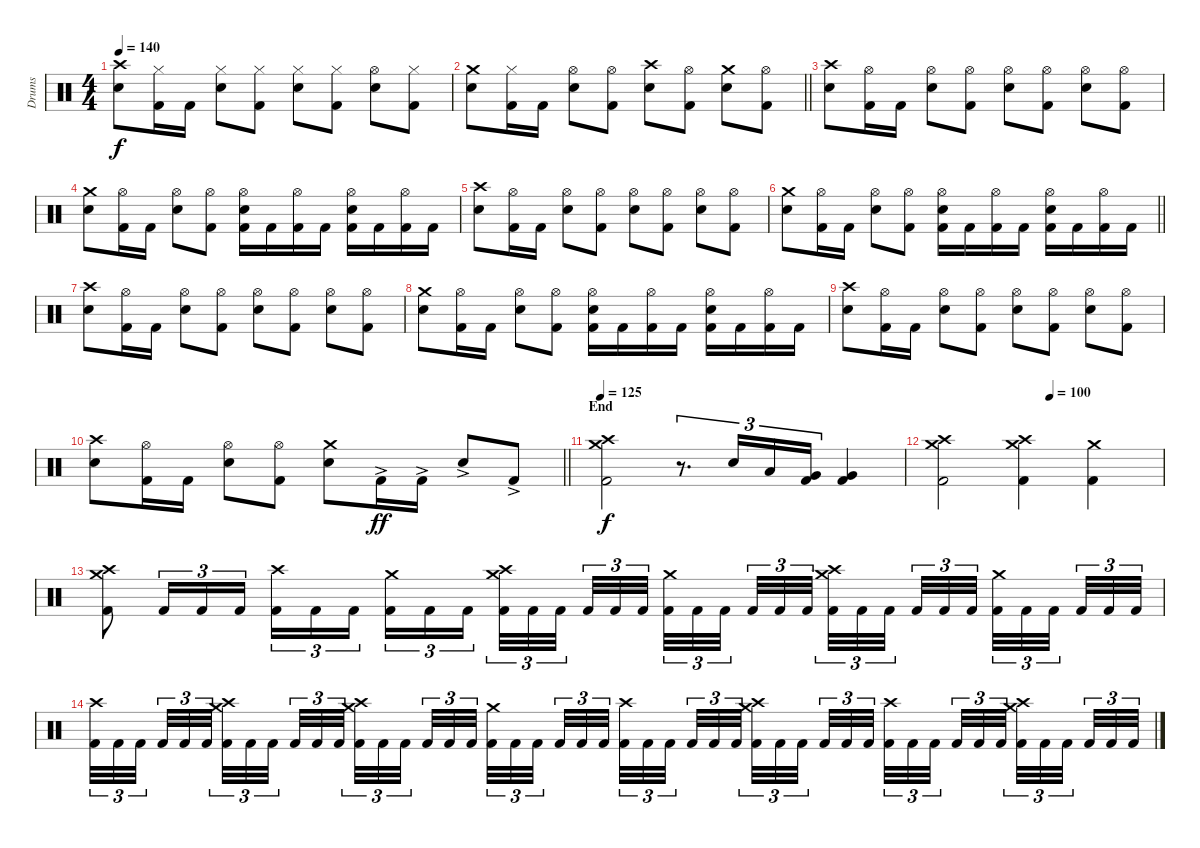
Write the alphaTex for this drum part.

\track ("Drums" "Drums") {instrument percussion}
\staff {score}
\articulation defaults
\ts (4 4)
\tempo 140
\clef neutral
\ks c
("Snare (hit) 2" "Crash high (hit)").8{dy f} ("Kick (hit) 2" "Hi-Hat (closed)").16 "Kick (hit) 2".16 ("Snare (hit) 2" "Hi-Hat (closed)").8 ("Kick (hit) 2" "Hi-Hat (closed)").8 ("Snare (hit) 2" "Hi-Hat (closed)").8 ("Kick (hit) 2" "Hi-Hat (closed)").8 ("Snare (hit) 2" "Hi-Hat (open)").8 ("Kick (hit) 2" "Hi-Hat (closed)").8 |
\barLineRight lightlight
("Snare (hit) 2" "Crash medium (hit)").8 ("Kick (hit) 2" "Hi-Hat (closed)").16 "Kick (hit) 2".16 ("Snare (hit) 2" "Hi-Hat (open)").8 ("Kick (hit) 2" "Hi-Hat (open)").8 ("Snare (hit) 2" "Crash high (hit)").8 ("Kick (hit) 2" "Hi-Hat (open)").8 ("Snare (hit) 2" "Crash medium (hit)").8 ("Kick (hit) 2" "Hi-Hat (open)").8 |
\section ("" "")
("Snare (hit) 2" "Crash high (hit)").8 ("Kick (hit) 2" "Hi-Hat (open)").16 "Kick (hit) 2".16 ("Snare (hit) 2" "Hi-Hat (open)").8 ("Kick (hit) 2" "Hi-Hat (open)").8 ("Snare (hit) 2" "Hi-Hat (open)").8 ("Kick (hit) 2" "Hi-Hat (open)").8 ("Snare (hit) 2" "Hi-Hat (open)").8 ("Kick (hit) 2" "Hi-Hat (open)").8 |
("Snare (hit) 2" "Crash medium (hit)").8 ("Kick (hit) 2" "Hi-Hat (open)").16 "Kick (hit) 2".16 ("Snare (hit) 2" "Hi-Hat (open)").8 ("Kick (hit) 2" "Hi-Hat (open)").8 ("Kick (hit) 2" "Snare (hit) 2" "Hi-Hat (open)").16 "Kick (hit) 2".16 ("Kick (hit) 2" "Hi-Hat (open)").16 "Kick (hit) 2".16 ("Kick (hit) 2" "Snare (hit) 2" "Hi-Hat (open)").16 "Kick (hit) 2".16 ("Kick (hit) 2" "Hi-Hat (open)").16 "Kick (hit) 2".16 |
("Snare (hit) 2" "Crash high (hit)").8 ("Kick (hit) 2" "Hi-Hat (open)").16 "Kick (hit) 2".16 ("Snare (hit) 2" "Hi-Hat (open)").8 ("Kick (hit) 2" "Hi-Hat (open)").8 ("Snare (hit) 2" "Hi-Hat (open)").8 ("Kick (hit) 2" "Hi-Hat (open)").8 ("Snare (hit) 2" "Hi-Hat (open)").8 ("Kick (hit) 2" "Hi-Hat (open)").8 |
\barLineRight lightlight
("Snare (hit) 2" "Crash medium (hit)").8 ("Kick (hit) 2" "Hi-Hat (open)").16 "Kick (hit) 2".16 ("Snare (hit) 2" "Hi-Hat (open)").8 ("Kick (hit) 2" "Hi-Hat (open)").8 ("Kick (hit) 2" "Snare (hit) 2" "Hi-Hat (open)").16 "Kick (hit) 2".16 ("Kick (hit) 2" "Hi-Hat (open)").16 "Kick (hit) 2".16 ("Kick (hit) 2" "Snare (hit) 2" "Hi-Hat (open)").16 "Kick (hit) 2".16 ("Kick (hit) 2" "Hi-Hat (open)").16 "Kick (hit) 2".16 |
\section ("" "")
("Snare (hit) 2" "Crash high (hit)").8 ("Kick (hit) 2" "Hi-Hat (open)").16 "Kick (hit) 2".16 ("Snare (hit) 2" "Hi-Hat (open)").8 ("Kick (hit) 2" "Hi-Hat (open)").8 ("Snare (hit) 2" "Hi-Hat (open)").8 ("Kick (hit) 2" "Hi-Hat (open)").8 ("Snare (hit) 2" "Hi-Hat (open)").8 ("Kick (hit) 2" "Hi-Hat (open)").8 |
("Snare (hit) 2" "Crash medium (hit)").8 ("Kick (hit) 2" "Hi-Hat (open)").16 "Kick (hit) 2".16 ("Snare (hit) 2" "Hi-Hat (open)").8 ("Kick (hit) 2" "Hi-Hat (open)").8 ("Kick (hit) 2" "Snare (hit) 2" "Hi-Hat (open)").16 "Kick (hit) 2".16 ("Kick (hit) 2" "Hi-Hat (open)").16 "Kick (hit) 2".16 ("Kick (hit) 2" "Snare (hit) 2" "Hi-Hat (open)").16 "Kick (hit) 2".16 ("Kick (hit) 2" "Hi-Hat (open)").16 "Kick (hit) 2".16 |
("Snare (hit) 2" "Crash high (hit)").8 ("Kick (hit) 2" "Hi-Hat (open)").16 "Kick (hit) 2".16 ("Snare (hit) 2" "Hi-Hat (open)").8 ("Kick (hit) 2" "Hi-Hat (open)").8 ("Snare (hit) 2" "Hi-Hat (open)").8 ("Kick (hit) 2" "Hi-Hat (open)").8 ("Snare (hit) 2" "Hi-Hat (open)").8 ("Kick (hit) 2" "Hi-Hat (open)").8 |
\barLineRight lightlight
("Snare (hit) 2" "Crash high (hit)").8 ("Kick (hit) 2" "Hi-Hat (open)").16 "Kick (hit) 2".16 ("Snare (hit) 2" "Hi-Hat (open)").8 ("Kick (hit) 2" "Hi-Hat (open)").8 ("Snare (hit) 2" "Crash medium (hit)").8 "Kick (hit) 2"{ac}.16{dy ff} "Kick (hit) 2"{ac}.16 "Snare (hit) 2"{ac}.8 "Kick (hit) 2"{ac}.8 |
\section ("" "End")
\tempo 125
("Kick (hit) 2" "Crash medium (hit)" "Crash high (hit)").2{dy f} r.8{d tu (3 2)} "Snare (hit) 2".16{tu (3 2)} "Low Tom (hit)".16{tu (3 2)} ("Kick (hit) 2" "Very Low Tom (hit)").16{tu (3 2)} ("Kick (hit) 2" "Very Low Tom (hit)").4 |
\tempo (100 0.5)
("Kick (hit) 2" "Crash medium (hit)" "Crash high (hit)").2 ("Kick (hit) 2" "Crash medium (hit)" "Crash high (hit)").4 ("Kick (hit) 2" "Crash medium (hit)").4 |
("Kick (hit) 2" "Crash medium (hit)" "Crash high (hit)").8{volume 2} "Kick (hit) 2".16{tu (3 2)} "Kick (hit) 2".16{tu (3 2)} "Kick (hit) 2".16{tu (3 2)} ("Kick (hit) 2" "Crash high (hit)").16{tu (3 2)} "Kick (hit) 2".16{tu (3 2)} "Kick (hit) 2".16{tu (3 2) beam splitsecondary} ("Kick (hit) 2" "Crash medium (hit)").16{tu (3 2)} "Kick (hit) 2".16{tu (3 2)} "Kick (hit) 2".16{tu (3 2)} ("Kick (hit) 2" "Crash medium (hit)" "Crash high (hit)").32{tu (3 2)} "Kick (hit) 2".32{tu (3 2)} "Kick (hit) 2".32{tu (3 2) beam splitsecondary} "Kick (hit) 2".32{tu (3 2)} "Kick (hit) 2".32{tu (3 2)} "Kick (hit) 2".32{tu (3 2) beam splitsecondary} ("Kick (hit) 2" "Crash medium (hit)").32{tu (3 2)} "Kick (hit) 2".32{tu (3 2)} "Kick (hit) 2".32{tu (3 2) beam splitsecondary} "Kick (hit) 2".32{tu (3 2)} "Kick (hit) 2".32{tu (3 2)} "Kick (hit) 2".32{tu (3 2)} ("Kick (hit) 2" "Crash medium (hit)" "Crash high (hit)").32{tu (3 2)} "Kick (hit) 2".32{tu (3 2)} "Kick (hit) 2".32{tu (3 2) beam splitsecondary} "Kick (hit) 2".32{tu (3 2)} "Kick (hit) 2".32{tu (3 2)} "Kick (hit) 2".32{tu (3 2) beam splitsecondary} ("Kick (hit) 2" "Crash medium (hit)").32{tu (3 2)} "Kick (hit) 2".32{tu (3 2)} "Kick (hit) 2".32{tu (3 2) beam splitsecondary} "Kick (hit) 2".32{tu (3 2)} "Kick (hit) 2".32{tu (3 2)} "Kick (hit) 2".32{tu (3 2)} |
("Kick (hit) 2" "Crash high (hit)").32{tu (3 2)} "Kick (hit) 2".32{tu (3 2)} "Kick (hit) 2".32{tu (3 2) beam splitsecondary} "Kick (hit) 2".32{tu (3 2)} "Kick (hit) 2".32{tu (3 2)} "Kick (hit) 2".32{tu (3 2) beam splitsecondary} ("Kick (hit) 2" "Crash medium (hit)" "Crash high (hit)").32{tu (3 2)} "Kick (hit) 2".32{tu (3 2)} "Kick (hit) 2".32{tu (3 2) beam splitsecondary} "Kick (hit) 2".32{tu (3 2)} "Kick (hit) 2".32{tu (3 2)} "Kick (hit) 2".32{tu (3 2)} ("Kick (hit) 2" "Crash medium (hit)" "Crash high (hit)").32{tu (3 2)} "Kick (hit) 2".32{tu (3 2)} "Kick (hit) 2".32{tu (3 2) beam splitsecondary} "Kick (hit) 2".32{tu (3 2)} "Kick (hit) 2".32{tu (3 2)} "Kick (hit) 2".32{tu (3 2) beam splitsecondary} ("Kick (hit) 2" "Crash medium (hit)").32{tu (3 2)} "Kick (hit) 2".32{tu (3 2)} "Kick (hit) 2".32{tu (3 2) beam splitsecondary} "Kick (hit) 2".32{tu (3 2)} "Kick (hit) 2".32{tu (3 2)} "Kick (hit) 2".32{tu (3 2)} ("Kick (hit) 2" "Crash high (hit)").32{tu (3 2)} "Kick (hit) 2".32{tu (3 2)} "Kick (hit) 2".32{tu (3 2) beam splitsecondary} "Kick (hit) 2".32{tu (3 2)} "Kick (hit) 2".32{tu (3 2)} "Kick (hit) 2".32{tu (3 2) beam splitsecondary} ("Kick (hit) 2" "Crash medium (hit)" "Crash high (hit)").32{tu (3 2)} "Kick (hit) 2".32{tu (3 2)} "Kick (hit) 2".32{tu (3 2) beam splitsecondary} "Kick (hit) 2".32{tu (3 2)} "Kick (hit) 2".32{tu (3 2)} "Kick (hit) 2".32{tu (3 2)} ("Kick (hit) 2" "Crash high (hit)").32{tu (3 2)} "Kick (hit) 2".32{tu (3 2)} "Kick (hit) 2".32{tu (3 2) beam splitsecondary} "Kick (hit) 2".32{tu (3 2)} "Kick (hit) 2".32{tu (3 2)} "Kick (hit) 2".32{tu (3 2) beam splitsecondary} ("Kick (hit) 2" "Crash medium (hit)" "Crash high (hit)").32{tu (3 2)} "Kick (hit) 2".32{tu (3 2)} "Kick (hit) 2".32{tu (3 2) beam splitsecondary} "Kick (hit) 2".32{tu (3 2)} "Kick (hit) 2".32{tu (3 2)} "Kick (hit) 2".32{tu (3 2)}
